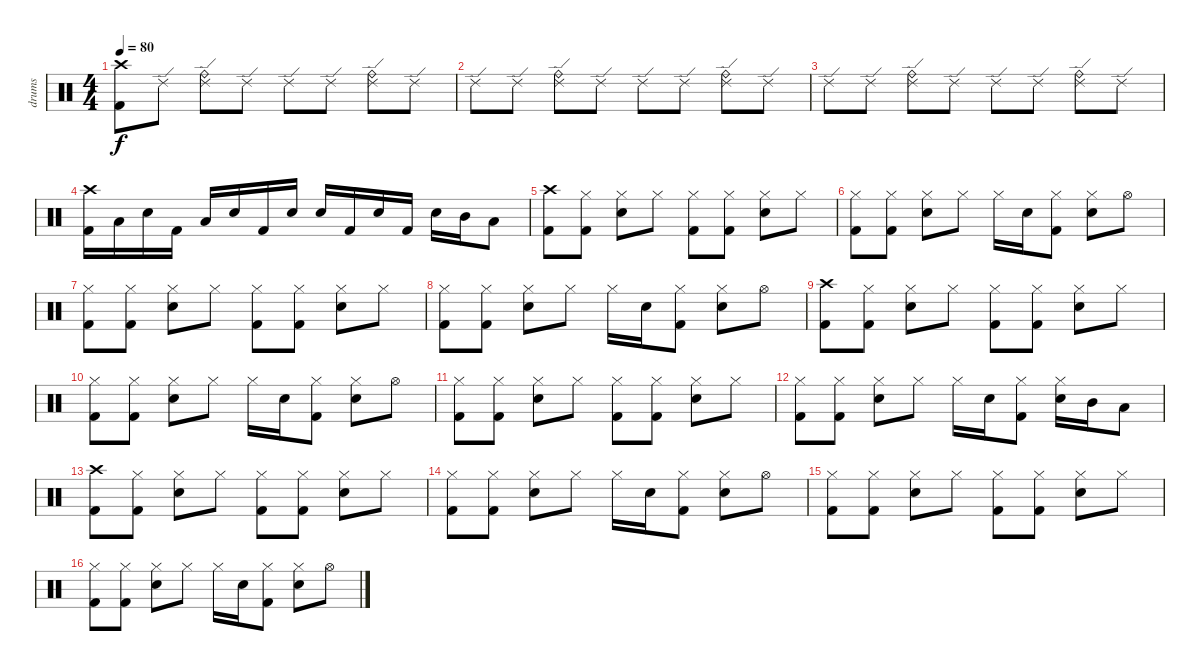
\track ("drums" "drums") {instrument percussion}
\staff
\articulation defaults
\ts (4 4)
\tempo 80
\clef neutral
\ks c
("Crash high (hit)" "Kick (hit) 2").8{dy f} "Ride (edge) 2".8 ("Ride (edge) 2" "Ride (bell)").8 "Ride (edge) 2".8 "Ride (edge) 2".8 "Ride (edge) 2".8 ("Ride (edge) 2" "Ride (bell)").8 "Ride (edge) 2".8 |
"Ride (edge) 2".8 "Ride (edge) 2".8 ("Ride (edge) 2" "Ride (bell)").8 "Ride (edge) 2".8 "Ride (edge) 2".8 "Ride (edge) 2".8 ("Ride (edge) 2" "Ride (bell)").8 "Ride (edge) 2".8 |
"Ride (edge) 2".8 "Ride (edge) 2".8 ("Ride (edge) 2" "Ride (bell)").8 "Ride (edge) 2".8 "Ride (edge) 2".8 "Ride (edge) 2".8 ("Ride (edge) 2" "Ride (bell)").8 "Ride (edge) 2".8 |
("Kick (hit) 2" "Crash high (hit)").16 "Low Tom (hit)".16 "Electric Snare (hit)".16 "Kick (hit) 2".16 "Low Tom (hit)".16 "Electric Snare (hit)".16 "Kick (hit) 2".16 "Electric Snare (hit)".16 "Electric Snare (hit)".16 "Kick (hit) 2".16 "Electric Snare (hit)".16 "Kick (hit) 2".16 "Electric Snare (hit)".16 "Mid Tom (hit)".16 "Low Tom (hit)".8 |
("Crash high (hit)" "Kick (hit) 2").8 ("Hi-Hat (closed)" "Kick (hit) 2").8 ("Hi-Hat (closed)" "Electric Snare (hit)").8 "Hi-Hat (closed)".8 ("Hi-Hat (closed)" "Kick (hit) 2").8 ("Hi-Hat (closed)" "Kick (hit) 2").8 ("Hi-Hat (closed)" "Electric Snare (hit)").8 "Hi-Hat (closed)".8 |
("Hi-Hat (closed)" "Kick (hit) 2").8 ("Hi-Hat (closed)" "Kick (hit) 2").8 ("Hi-Hat (closed)" "Electric Snare (hit)").8 "Hi-Hat (closed)".8 "Hi-Hat (closed)".16 "Electric Snare (hit)".16 ("Hi-Hat (closed)" "Kick (hit) 2").8 ("Hi-Hat (closed)" "Electric Snare (hit)").8 "Hi-Hat (open)".8 |
("Hi-Hat (closed)" "Kick (hit) 2").8 ("Hi-Hat (closed)" "Kick (hit) 2").8 ("Hi-Hat (closed)" "Electric Snare (hit)").8 "Hi-Hat (closed)".8 ("Hi-Hat (closed)" "Kick (hit) 2").8 ("Hi-Hat (closed)" "Kick (hit) 2").8 ("Hi-Hat (closed)" "Electric Snare (hit)").8 "Hi-Hat (closed)".8 |
("Hi-Hat (closed)" "Kick (hit) 2").8 ("Hi-Hat (closed)" "Kick (hit) 2").8 ("Hi-Hat (closed)" "Electric Snare (hit)").8 "Hi-Hat (closed)".8 "Hi-Hat (closed)".16 "Electric Snare (hit)".16 ("Hi-Hat (closed)" "Kick (hit) 2").8 ("Hi-Hat (closed)" "Electric Snare (hit)").8 "Hi-Hat (open)".8 |
("Crash high (hit)" "Kick (hit) 2").8 ("Hi-Hat (closed)" "Kick (hit) 2").8 ("Hi-Hat (closed)" "Electric Snare (hit)").8 "Hi-Hat (closed)".8 ("Hi-Hat (closed)" "Kick (hit) 2").8 ("Hi-Hat (closed)" "Kick (hit) 2").8 ("Hi-Hat (closed)" "Electric Snare (hit)").8 "Hi-Hat (closed)".8 |
("Hi-Hat (closed)" "Kick (hit) 2").8 ("Hi-Hat (closed)" "Kick (hit) 2").8 ("Hi-Hat (closed)" "Electric Snare (hit)").8 "Hi-Hat (closed)".8 "Hi-Hat (closed)".16 "Electric Snare (hit)".16 ("Hi-Hat (closed)" "Kick (hit) 2").8 ("Hi-Hat (closed)" "Electric Snare (hit)").8 "Hi-Hat (open)".8 |
("Hi-Hat (closed)" "Kick (hit) 2").8 ("Hi-Hat (closed)" "Kick (hit) 2").8 ("Hi-Hat (closed)" "Electric Snare (hit)").8 "Hi-Hat (closed)".8 ("Hi-Hat (closed)" "Kick (hit) 2").8 ("Hi-Hat (closed)" "Kick (hit) 2").8 ("Hi-Hat (closed)" "Electric Snare (hit)").8 "Hi-Hat (closed)".8 |
("Hi-Hat (closed)" "Kick (hit) 2").8 ("Hi-Hat (closed)" "Kick (hit) 2").8 ("Hi-Hat (closed)" "Electric Snare (hit)").8 "Hi-Hat (closed)".8 "Hi-Hat (closed)".16 "Electric Snare (hit)".16 ("Hi-Hat (closed)" "Kick (hit) 2").8 ("Hi-Hat (closed)" "Electric Snare (hit)").16 "Mid Tom (hit)".16 "Low Tom (hit)".8 |
("Crash high (hit)" "Kick (hit) 2").8 ("Hi-Hat (closed)" "Kick (hit) 2").8 ("Hi-Hat (closed)" "Electric Snare (hit)").8 "Hi-Hat (closed)".8 ("Hi-Hat (closed)" "Kick (hit) 2").8 ("Hi-Hat (closed)" "Kick (hit) 2").8 ("Hi-Hat (closed)" "Electric Snare (hit)").8 "Hi-Hat (closed)".8 |
("Hi-Hat (closed)" "Kick (hit) 2").8 ("Hi-Hat (closed)" "Kick (hit) 2").8 ("Hi-Hat (closed)" "Electric Snare (hit)").8 "Hi-Hat (closed)".8 "Hi-Hat (closed)".16 "Electric Snare (hit)".16 ("Hi-Hat (closed)" "Kick (hit) 2").8 ("Hi-Hat (closed)" "Electric Snare (hit)").8 "Hi-Hat (open)".8 |
("Hi-Hat (closed)" "Kick (hit) 2").8 ("Hi-Hat (closed)" "Kick (hit) 2").8 ("Hi-Hat (closed)" "Electric Snare (hit)").8 "Hi-Hat (closed)".8 ("Hi-Hat (closed)" "Kick (hit) 2").8 ("Hi-Hat (closed)" "Kick (hit) 2").8 ("Hi-Hat (closed)" "Electric Snare (hit)").8 "Hi-Hat (closed)".8 |
("Hi-Hat (closed)" "Kick (hit) 2").8 ("Hi-Hat (closed)" "Kick (hit) 2").8 ("Hi-Hat (closed)" "Electric Snare (hit)").8 "Hi-Hat (closed)".8 "Hi-Hat (closed)".16 "Electric Snare (hit)".16 ("Hi-Hat (closed)" "Kick (hit) 2").8 ("Hi-Hat (closed)" "Electric Snare (hit)").8 "Hi-Hat (open)".8
